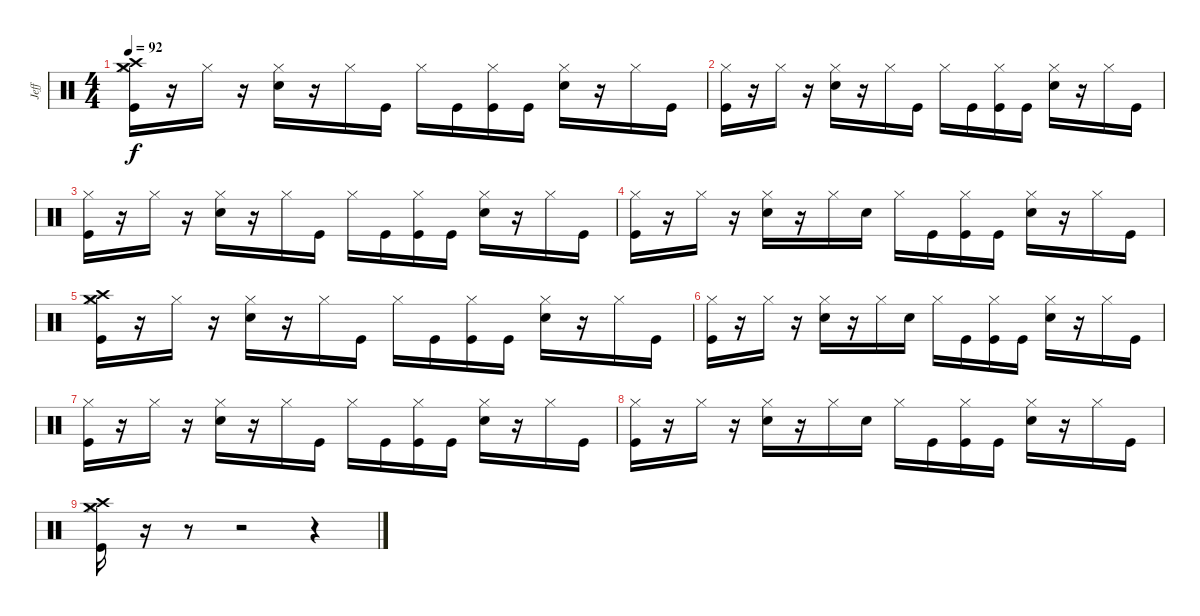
\track ("Jeff" "Jeff") {instrument percussion}
\staff {score}
\articulation defaults
\ts (4 4)
\tempo 92
\clef neutral
\ks c
("Crash medium (hit)" "Hi-Hat (closed)" "Crash high (hit)" "Kick (hit)").16{dy f} r.16 "Hi-Hat (closed)".16 r.16 ("Electric Snare (hit)" "Hi-Hat (closed)").16 r.16 "Hi-Hat (closed)".16 "Kick (hit)".16 "Hi-Hat (closed)".16 "Kick (hit)".16 ("Hi-Hat (closed)" "Kick (hit)").16 "Kick (hit)".16 ("Electric Snare (hit)" "Hi-Hat (closed)").16 r.16 "Hi-Hat (closed)".16 "Kick (hit)".16 |
("Hi-Hat (closed)" "Kick (hit)").16 r.16 "Hi-Hat (closed)".16 r.16 ("Electric Snare (hit)" "Hi-Hat (closed)").16 r.16 "Hi-Hat (closed)".16 "Kick (hit)".16 "Hi-Hat (closed)".16 "Kick (hit)".16 ("Hi-Hat (closed)" "Kick (hit)").16 "Kick (hit)".16 ("Electric Snare (hit)" "Hi-Hat (closed)").16 r.16 "Hi-Hat (closed)".16 "Kick (hit)".16 |
("Hi-Hat (closed)" "Kick (hit)").16 r.16 "Hi-Hat (closed)".16 r.16 ("Electric Snare (hit)" "Hi-Hat (closed)").16 r.16 "Hi-Hat (closed)".16 "Kick (hit)".16 "Hi-Hat (closed)".16 "Kick (hit)".16 ("Hi-Hat (closed)" "Kick (hit)").16 "Kick (hit)".16 ("Electric Snare (hit)" "Hi-Hat (closed)").16 r.16 "Hi-Hat (closed)".16 "Kick (hit)".16 |
("Hi-Hat (closed)" "Kick (hit)").16 r.16 "Hi-Hat (closed)".16 r.16 ("Electric Snare (hit)" "Hi-Hat (closed)").16 r.16 "Hi-Hat (closed)".16 "Electric Snare (hit)".16 "Hi-Hat (closed)".16 "Kick (hit)".16 ("Hi-Hat (closed)" "Kick (hit)").16 "Kick (hit)".16 ("Electric Snare (hit)" "Hi-Hat (closed)").16 r.16 "Hi-Hat (closed)".16 "Kick (hit)".16 |
("Crash medium (hit)" "Hi-Hat (closed)" "Crash high (hit)" "Kick (hit)").16 r.16 "Hi-Hat (closed)".16 r.16 ("Electric Snare (hit)" "Hi-Hat (closed)").16 r.16 "Hi-Hat (closed)".16 "Kick (hit)".16 "Hi-Hat (closed)".16 "Kick (hit)".16 ("Hi-Hat (closed)" "Kick (hit)").16 "Kick (hit)".16 ("Electric Snare (hit)" "Hi-Hat (closed)").16 r.16 "Hi-Hat (closed)".16 "Kick (hit)".16 |
("Hi-Hat (closed)" "Kick (hit)").16 r.16 "Hi-Hat (closed)".16 r.16 ("Electric Snare (hit)" "Hi-Hat (closed)").16 r.16 "Hi-Hat (closed)".16 "Electric Snare (hit)".16 "Hi-Hat (closed)".16 "Kick (hit)".16 ("Hi-Hat (closed)" "Kick (hit)").16 "Kick (hit)".16 ("Electric Snare (hit)" "Hi-Hat (closed)").16 r.16 "Hi-Hat (closed)".16 "Kick (hit)".16 |
("Hi-Hat (closed)" "Kick (hit)").16 r.16 "Hi-Hat (closed)".16 r.16 ("Electric Snare (hit)" "Hi-Hat (closed)").16 r.16 "Hi-Hat (closed)".16 "Kick (hit)".16 "Hi-Hat (closed)".16 "Kick (hit)".16 ("Hi-Hat (closed)" "Kick (hit)").16 "Kick (hit)".16 ("Electric Snare (hit)" "Hi-Hat (closed)").16 r.16 "Hi-Hat (closed)".16 "Kick (hit)".16 |
("Hi-Hat (closed)" "Kick (hit)").16 r.16 "Hi-Hat (closed)".16 r.16 ("Electric Snare (hit)" "Hi-Hat (closed)").16 r.16 "Hi-Hat (closed)".16 "Electric Snare (hit)".16 "Hi-Hat (closed)".16 "Kick (hit)".16 ("Hi-Hat (closed)" "Kick (hit)").16 "Kick (hit)".16 ("Electric Snare (hit)" "Hi-Hat (closed)").16 r.16 "Hi-Hat (closed)".16 "Kick (hit)".16 |
("Crash medium (hit)" "Hi-Hat (closed)" "Crash high (hit)" "Kick (hit)").16 r.16 r.8 r.2 r.4
